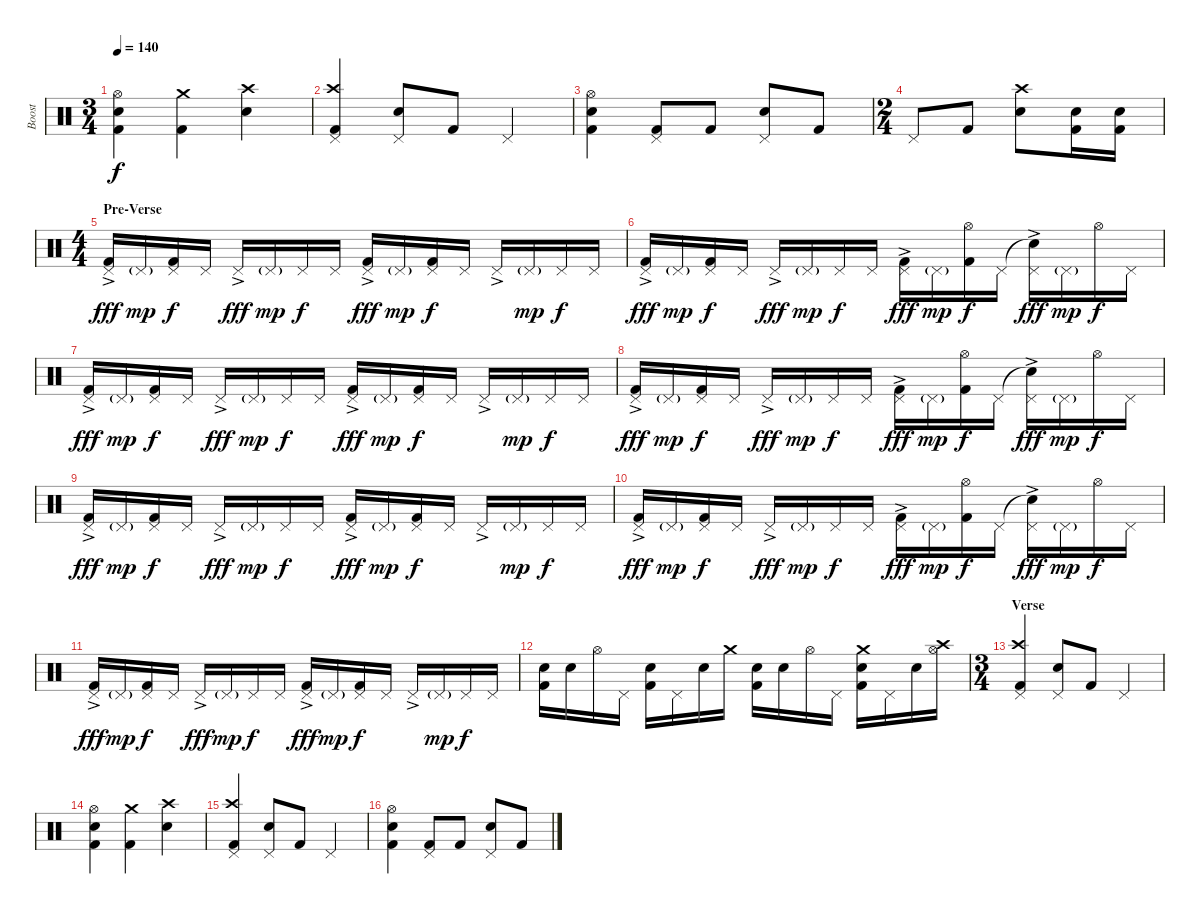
\track ("Boost" "Boost") {instrument percussion}
\staff {score}
\articulation defaults
\ts (3 4)
\tempo 140
\clef neutral
\ks c
("Hi-Hat (open)" "Snare (hit) 2" "Kick (hit) 2").4{dy f} ("Crash medium (hit)" "Kick (hit) 2").4 ("Crash high (hit)" "Snare (hit) 2").4 |
("Crash high (hit)" "Pedal Hi-Hat (hit)" "Kick (hit) 2").4 ("Pedal Hi-Hat (hit)" "Snare (hit) 2").8 "Kick (hit) 2".8 "Pedal Hi-Hat (hit)".4 |
("Hi-Hat (open)" "Snare (hit) 2" "Kick (hit) 2").4 ("Pedal Hi-Hat (hit)" "Kick (hit) 2").8 "Kick (hit) 2".8 ("Pedal Hi-Hat (hit)" "Snare (hit) 2").8 "Kick (hit) 2".8 |
\ts (2 4)
"Pedal Hi-Hat (hit)".8 "Kick (hit) 2".8 ("Crash high (hit)" "Snare (hit) 2").8 ("Snare (hit) 2" "Kick (hit) 2").16 ("Snare (hit) 2" "Kick (hit) 2").16 |
\ts (4 4)
\section ("" "Pre-Verse")
("Pedal Hi-Hat (hit)"{ac} "Kick (hit) 2").16{dy fff} "Pedal Hi-Hat (hit)"{g}.16{dy mp} ("Pedal Hi-Hat (hit)" "Kick (hit) 2").16{dy f} "Pedal Hi-Hat (hit)".16 "Pedal Hi-Hat (hit)"{ac}.16{dy fff} "Pedal Hi-Hat (hit)"{g}.16{dy mp} "Pedal Hi-Hat (hit)".16{dy f} "Pedal Hi-Hat (hit)".16 ("Pedal Hi-Hat (hit)"{ac} "Kick (hit) 2").16{dy fff} "Pedal Hi-Hat (hit)"{g}.16{dy mp} ("Pedal Hi-Hat (hit)" "Kick (hit) 2").16{dy f} "Pedal Hi-Hat (hit)".16 "Pedal Hi-Hat (hit)"{ac}.16 "Pedal Hi-Hat (hit)"{g}.16{dy mp} "Pedal Hi-Hat (hit)".16{dy f} "Pedal Hi-Hat (hit)".16 |
("Pedal Hi-Hat (hit)"{ac} "Kick (hit) 2").16{dy fff} "Pedal Hi-Hat (hit)"{g}.16{dy mp} ("Pedal Hi-Hat (hit)" "Kick (hit) 2").16{dy f} "Pedal Hi-Hat (hit)".16 "Pedal Hi-Hat (hit)"{ac}.16{dy fff} "Pedal Hi-Hat (hit)"{g}.16{dy mp} "Pedal Hi-Hat (hit)".16{dy f} "Pedal Hi-Hat (hit)".16 ("Pedal Hi-Hat (hit)"{ac} "Kick (hit) 2").16{dy fff} "Pedal Hi-Hat (hit)"{g}.16{dy mp} ("Hi-Hat (open)" "Kick (hit) 2").16{dy f} "Pedal Hi-Hat (hit)".16 ("Snare (hit)"{t} "Pedal Hi-Hat (hit)"{ac}).16{dy fff} "Pedal Hi-Hat (hit)"{g}.16{dy mp} "Hi-Hat (open)".16{dy f} "Pedal Hi-Hat (hit)".16 |
("Pedal Hi-Hat (hit)"{ac} "Kick (hit) 2").16{dy fff} "Pedal Hi-Hat (hit)"{g}.16{dy mp} ("Pedal Hi-Hat (hit)" "Kick (hit) 2").16{dy f} "Pedal Hi-Hat (hit)".16 "Pedal Hi-Hat (hit)"{ac}.16{dy fff} "Pedal Hi-Hat (hit)"{g}.16{dy mp} "Pedal Hi-Hat (hit)".16{dy f} "Pedal Hi-Hat (hit)".16 ("Pedal Hi-Hat (hit)"{ac} "Kick (hit) 2").16{dy fff} "Pedal Hi-Hat (hit)"{g}.16{dy mp} ("Pedal Hi-Hat (hit)" "Kick (hit) 2").16{dy f} "Pedal Hi-Hat (hit)".16 "Pedal Hi-Hat (hit)"{ac}.16 "Pedal Hi-Hat (hit)"{g}.16{dy mp} "Pedal Hi-Hat (hit)".16{dy f} "Pedal Hi-Hat (hit)".16 |
("Pedal Hi-Hat (hit)"{ac} "Kick (hit) 2").16{dy fff} "Pedal Hi-Hat (hit)"{g}.16{dy mp} ("Pedal Hi-Hat (hit)" "Kick (hit) 2").16{dy f} "Pedal Hi-Hat (hit)".16 "Pedal Hi-Hat (hit)"{ac}.16{dy fff} "Pedal Hi-Hat (hit)"{g}.16{dy mp} "Pedal Hi-Hat (hit)".16{dy f} "Pedal Hi-Hat (hit)".16 ("Pedal Hi-Hat (hit)"{ac} "Kick (hit) 2").16{dy fff} "Pedal Hi-Hat (hit)"{g}.16{dy mp} ("Hi-Hat (open)" "Kick (hit) 2").16{dy f} "Pedal Hi-Hat (hit)".16 ("Snare (hit)"{t} "Pedal Hi-Hat (hit)"{ac}).16{dy fff} "Pedal Hi-Hat (hit)"{g}.16{dy mp} "Hi-Hat (open)".16{dy f} "Pedal Hi-Hat (hit)".16 |
("Pedal Hi-Hat (hit)"{ac} "Kick (hit) 2").16{dy fff} "Pedal Hi-Hat (hit)"{g}.16{dy mp} ("Pedal Hi-Hat (hit)" "Kick (hit) 2").16{dy f} "Pedal Hi-Hat (hit)".16 "Pedal Hi-Hat (hit)"{ac}.16{dy fff} "Pedal Hi-Hat (hit)"{g}.16{dy mp} "Pedal Hi-Hat (hit)".16{dy f} "Pedal Hi-Hat (hit)".16 ("Pedal Hi-Hat (hit)"{ac} "Kick (hit) 2").16{dy fff} "Pedal Hi-Hat (hit)"{g}.16{dy mp} ("Pedal Hi-Hat (hit)" "Kick (hit) 2").16{dy f} "Pedal Hi-Hat (hit)".16 "Pedal Hi-Hat (hit)"{ac}.16 "Pedal Hi-Hat (hit)"{g}.16{dy mp} "Pedal Hi-Hat (hit)".16{dy f} "Pedal Hi-Hat (hit)".16 |
("Pedal Hi-Hat (hit)"{ac} "Kick (hit) 2").16{dy fff} "Pedal Hi-Hat (hit)"{g}.16{dy mp} ("Pedal Hi-Hat (hit)" "Kick (hit) 2").16{dy f} "Pedal Hi-Hat (hit)".16 "Pedal Hi-Hat (hit)"{ac}.16{dy fff} "Pedal Hi-Hat (hit)"{g}.16{dy mp} "Pedal Hi-Hat (hit)".16{dy f} "Pedal Hi-Hat (hit)".16 ("Pedal Hi-Hat (hit)"{ac} "Kick (hit) 2").16{dy fff} "Pedal Hi-Hat (hit)"{g}.16{dy mp} ("Hi-Hat (open)" "Kick (hit) 2").16{dy f} "Pedal Hi-Hat (hit)".16 ("Snare (hit)"{t} "Pedal Hi-Hat (hit)"{ac}).16{dy fff} "Pedal Hi-Hat (hit)"{g}.16{dy mp} "Hi-Hat (open)".16{dy f} "Pedal Hi-Hat (hit)".16 |
("Pedal Hi-Hat (hit)"{ac} "Kick (hit) 2").16{dy fff} "Pedal Hi-Hat (hit)"{g}.16{dy mp} ("Pedal Hi-Hat (hit)" "Kick (hit) 2").16{dy f} "Pedal Hi-Hat (hit)".16 "Pedal Hi-Hat (hit)"{ac}.16{dy fff} "Pedal Hi-Hat (hit)"{g}.16{dy mp} "Pedal Hi-Hat (hit)".16{dy f} "Pedal Hi-Hat (hit)".16 ("Pedal Hi-Hat (hit)"{ac} "Kick (hit) 2").16{dy fff} "Pedal Hi-Hat (hit)"{g}.16{dy mp} ("Pedal Hi-Hat (hit)" "Kick (hit) 2").16{dy f} "Pedal Hi-Hat (hit)".16 "Pedal Hi-Hat (hit)"{ac}.16 "Pedal Hi-Hat (hit)"{g}.16{dy mp} "Pedal Hi-Hat (hit)".16{dy f} "Pedal Hi-Hat (hit)".16 |
("Snare (hit) 2" "Kick (hit) 2").16 "Snare (hit) 2".16 "Hi-Hat (open)".16 "Pedal Hi-Hat (hit)".16 ("Snare (hit) 2" "Kick (hit) 2").16 "Pedal Hi-Hat (hit)".16 "Snare (hit) 2".16 "Crash medium (hit)".16 ("Snare (hit) 2" "Kick (hit) 2").16 "Snare (hit) 2".16 "Hi-Hat (open)".16 "Pedal Hi-Hat (hit)".16 ("Crash medium (hit)" "Snare (hit) 2" "Kick (hit) 2").16 "Pedal Hi-Hat (hit)".16 "Snare (hit) 2".16 ("Crash high (hit)" "Hi-Hat (open)").16 |
\ts (3 4)
\section ("" "Verse")
("Crash high (hit)" "Pedal Hi-Hat (hit)" "Kick (hit) 2").4 ("Pedal Hi-Hat (hit)" "Snare (hit) 2").8 "Kick (hit) 2".8 "Pedal Hi-Hat (hit)".4 |
("Hi-Hat (open)" "Snare (hit) 2" "Kick (hit) 2").4 ("Crash medium (hit)" "Kick (hit) 2").4 ("Crash high (hit)" "Snare (hit) 2").4 |
("Crash high (hit)" "Pedal Hi-Hat (hit)" "Kick (hit) 2").4 ("Pedal Hi-Hat (hit)" "Snare (hit) 2").8 "Kick (hit) 2".8 "Pedal Hi-Hat (hit)".4 |
("Hi-Hat (open)" "Snare (hit) 2" "Kick (hit) 2").4 ("Pedal Hi-Hat (hit)" "Kick (hit) 2").8 "Kick (hit) 2".8 ("Pedal Hi-Hat (hit)" "Snare (hit) 2").8 "Kick (hit) 2".8
